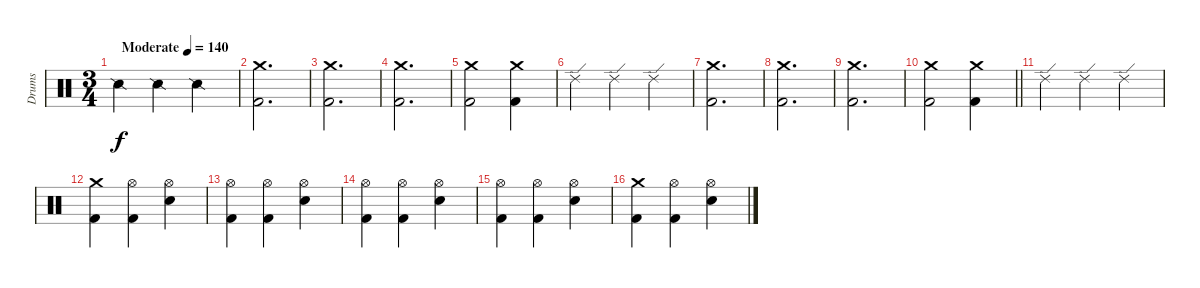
\track ("Drums" "Drums") {instrument percussion}
\staff {score}
\articulation defaults
\ts (3 4)
\tempo (140 "Moderate")
\clef neutral
\ks c "Snare (side stick) 2".4{dy f} "Snare (side stick) 2".4 "Snare (side stick) 2".4
|
("Kick (hit) 2" "Crash medium (hit)").2{d} |
("Kick (hit) 2" "Crash medium (hit)").2{d} |
("Kick (hit) 2" "Crash medium (hit)").2{d} |
("Kick (hit) 2" "Crash medium (hit)").2 ("Kick (hit) 2" "Crash medium (hit)").4 |
"Ride (edge) 2".4 "Ride (edge) 2".4 "Ride (edge) 2".4 |
("Kick (hit) 2" "Crash medium (hit)").2{d} |
("Kick (hit) 2" "Crash medium (hit)").2{d} |
("Kick (hit) 2" "Crash medium (hit)").2{d} |
\barLineRight lightlight
("Kick (hit) 2" "Crash medium (hit)").2 ("Kick (hit) 2" "Crash medium (hit)").4 |
"Ride (edge) 2".4 "Ride (edge) 2".4 "Ride (edge) 2".4 |
("Kick (hit) 2" "Crash medium (hit)").4 ("Kick (hit) 2" "Hi-Hat (open)").4 ("Hi-Hat (open)" "Electric Snare (hit)").4 |
("Kick (hit) 2" "Hi-Hat (open)").4 ("Kick (hit) 2" "Hi-Hat (open)").4 ("Hi-Hat (open)" "Electric Snare (hit)").4 |
("Kick (hit) 2" "Hi-Hat (open)").4 ("Kick (hit) 2" "Hi-Hat (open)").4 ("Hi-Hat (open)" "Electric Snare (hit)").4 |
("Kick (hit) 2" "Hi-Hat (open)").4 ("Kick (hit) 2" "Hi-Hat (open)").4 ("Hi-Hat (open)" "Electric Snare (hit)").4 |
("Kick (hit) 2" "Crash medium (hit)").4 ("Kick (hit) 2" "Hi-Hat (open)").4 ("Hi-Hat (open)" "Electric Snare (hit)").4
